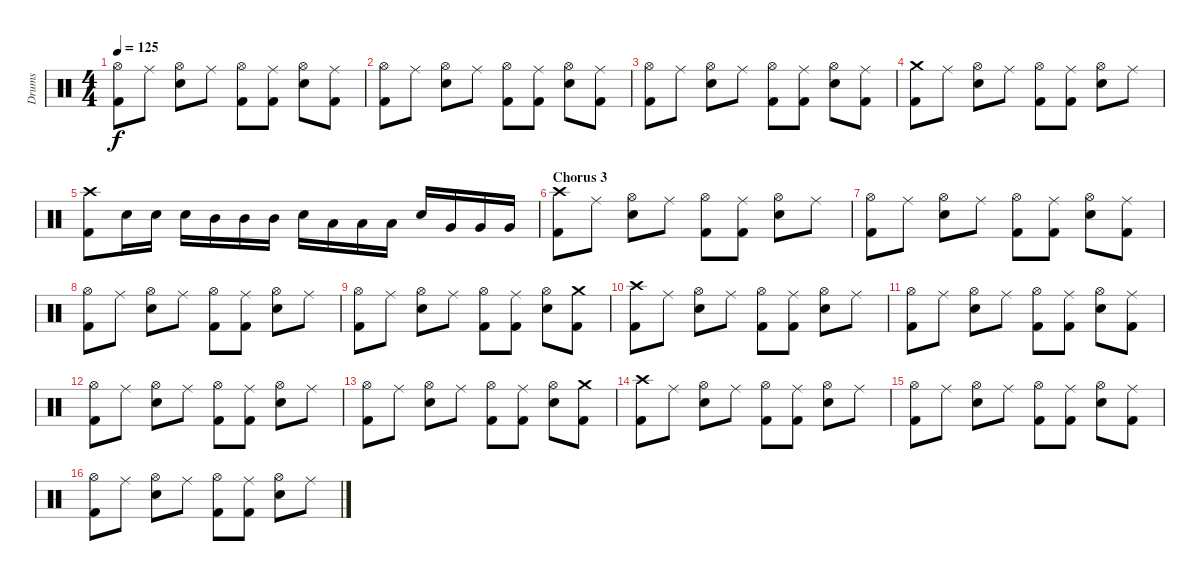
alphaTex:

\track ("Drums" "Drums") {instrument percussion}
\staff {score}
\articulation defaults
\ts (4 4)
\tempo 125
\clef neutral
\ks c
("Hi-Hat (open)" "Kick (hit) 2").8{dy f} "Ride (middle)".8 ("Hi-Hat (open)" "Electric Snare (hit)").8 "Ride (middle)".8 ("Hi-Hat (open)" "Kick (hit) 2").8 ("Ride (middle)" "Kick (hit) 2").8 ("Hi-Hat (open)" "Electric Snare (hit)").8 ("Ride (middle)" "Kick (hit) 2").8 |
("Hi-Hat (open)" "Kick (hit) 2").8 "Ride (middle)".8 ("Hi-Hat (open)" "Electric Snare (hit)").8 "Ride (middle)".8 ("Hi-Hat (open)" "Kick (hit) 2").8 ("Ride (middle)" "Kick (hit) 2").8 ("Hi-Hat (open)" "Electric Snare (hit)").8 ("Ride (middle)" "Kick (hit) 2").8 |
("Hi-Hat (open)" "Kick (hit) 2").8 "Ride (middle)".8 ("Hi-Hat (open)" "Electric Snare (hit)").8 "Ride (middle)".8 ("Hi-Hat (open)" "Kick (hit) 2").8 ("Ride (middle)" "Kick (hit) 2").8 ("Hi-Hat (open)" "Electric Snare (hit)").8 ("Ride (middle)" "Kick (hit) 2").8 |
("Crash medium (hit)" "Kick (hit) 2").8 "Ride (middle)".8 ("Hi-Hat (open)" "Electric Snare (hit)").8 "Ride (middle)".8 ("Hi-Hat (open)" "Kick (hit) 2").8 ("Ride (middle)" "Kick (hit) 2").8 ("Hi-Hat (open)" "Electric Snare (hit)").8 "Ride (middle)".8 |
("Crash high (hit)" "Kick (hit) 2").8 "Electric Snare (hit)".16 "Electric Snare (hit)".16 "Electric Snare (hit)".16 "Mid Tom (hit)".16 "Mid Tom (hit)".16 "Mid Tom (hit)".16 "Electric Snare (hit)".16 "Low Tom (hit)".16 "Low Tom (hit)".16 "Low Tom (hit)".16 "Electric Snare (hit)".16 "Very Low Tom (hit)".16 "Very Low Tom (hit)".16 "Very Low Tom (hit)".16 |
\section ("" "Chorus 3")
("Crash high (hit)" "Kick (hit) 2").8 "Ride (middle)".8 ("Hi-Hat (open)" "Electric Snare (hit)").8 "Ride (middle)".8 ("Hi-Hat (open)" "Kick (hit) 2").8 ("Ride (middle)" "Kick (hit) 2").8 ("Hi-Hat (open)" "Electric Snare (hit)").8 "Ride (middle)".8 |
("Hi-Hat (open)" "Kick (hit) 2").8 "Ride (middle)".8 ("Hi-Hat (open)" "Electric Snare (hit)").8 "Ride (middle)".8 ("Hi-Hat (open)" "Kick (hit) 2").8 ("Ride (middle)" "Kick (hit) 2").8 ("Hi-Hat (open)" "Electric Snare (hit)").8 ("Ride (middle)" "Kick (hit) 2").8 |
("Hi-Hat (open)" "Kick (hit) 2").8 "Ride (middle)".8 ("Hi-Hat (open)" "Electric Snare (hit)").8 "Ride (middle)".8 ("Hi-Hat (open)" "Kick (hit) 2").8 ("Ride (middle)" "Kick (hit) 2").8 ("Hi-Hat (open)" "Electric Snare (hit)").8 "Ride (middle)".8 |
("Hi-Hat (open)" "Kick (hit) 2").8 "Ride (middle)".8 ("Hi-Hat (open)" "Electric Snare (hit)").8 "Ride (middle)".8 ("Hi-Hat (open)" "Kick (hit) 2").8 ("Ride (middle)" "Kick (hit) 2").8 ("Hi-Hat (open)" "Electric Snare (hit)").8 ("Crash medium (hit)" "Kick (hit) 2").8 |
("Crash high (hit)" "Kick (hit) 2").8 "Ride (middle)".8 ("Hi-Hat (open)" "Electric Snare (hit)").8 "Ride (middle)".8 ("Hi-Hat (open)" "Kick (hit) 2").8 ("Ride (middle)" "Kick (hit) 2").8 ("Hi-Hat (open)" "Electric Snare (hit)").8 "Ride (middle)".8 |
("Hi-Hat (open)" "Kick (hit) 2").8 "Ride (middle)".8 ("Hi-Hat (open)" "Electric Snare (hit)").8 "Ride (middle)".8 ("Hi-Hat (open)" "Kick (hit) 2").8 ("Ride (middle)" "Kick (hit) 2").8 ("Hi-Hat (open)" "Electric Snare (hit)").8 ("Ride (middle)" "Kick (hit) 2").8 |
("Hi-Hat (open)" "Kick (hit) 2").8 "Ride (middle)".8 ("Hi-Hat (open)" "Electric Snare (hit)").8 "Ride (middle)".8 ("Hi-Hat (open)" "Kick (hit) 2").8 ("Ride (middle)" "Kick (hit) 2").8 ("Hi-Hat (open)" "Electric Snare (hit)").8 "Ride (middle)".8 |
("Hi-Hat (open)" "Kick (hit) 2").8 "Ride (middle)".8 ("Hi-Hat (open)" "Electric Snare (hit)").8 "Ride (middle)".8 ("Hi-Hat (open)" "Kick (hit) 2").8 ("Ride (middle)" "Kick (hit) 2").8 ("Hi-Hat (open)" "Electric Snare (hit)").8 ("Crash medium (hit)" "Kick (hit) 2").8 |
("Crash high (hit)" "Kick (hit) 2").8 "Ride (middle)".8 ("Hi-Hat (open)" "Electric Snare (hit)").8 "Ride (middle)".8 ("Hi-Hat (open)" "Kick (hit) 2").8 ("Ride (middle)" "Kick (hit) 2").8 ("Hi-Hat (open)" "Electric Snare (hit)").8 "Ride (middle)".8 |
("Hi-Hat (open)" "Kick (hit) 2").8 "Ride (middle)".8 ("Hi-Hat (open)" "Electric Snare (hit)").8 "Ride (middle)".8 ("Hi-Hat (open)" "Kick (hit) 2").8 ("Ride (middle)" "Kick (hit) 2").8 ("Hi-Hat (open)" "Electric Snare (hit)").8 ("Ride (middle)" "Kick (hit) 2").8 |
("Hi-Hat (open)" "Kick (hit) 2").8 "Ride (middle)".8 ("Hi-Hat (open)" "Electric Snare (hit)").8 "Ride (middle)".8 ("Hi-Hat (open)" "Kick (hit) 2").8 ("Ride (middle)" "Kick (hit) 2").8 ("Hi-Hat (open)" "Electric Snare (hit)").8 "Ride (middle)".8
